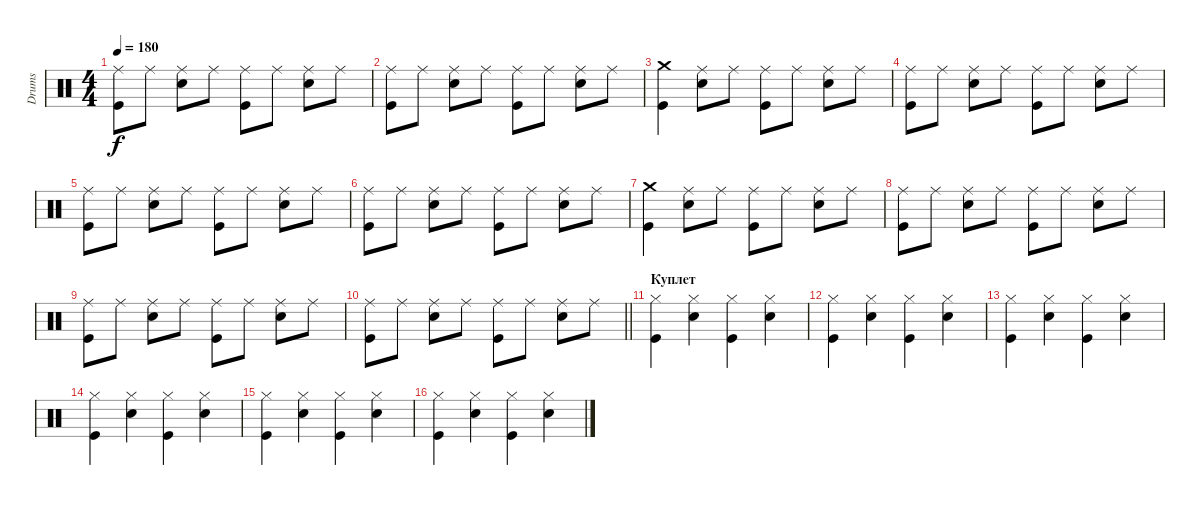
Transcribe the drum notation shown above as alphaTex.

\track ("Drums" "Drums") {instrument percussion}
\staff {score}
\articulation defaults
\ts (4 4)
\tempo 180
\clef neutral
\ks c
("Kick (hit)" "Ride (middle)").8{dy f} "Ride (middle)".8 ("Snare (hit) 2" "Ride (middle)").8 "Ride (middle)".8 ("Kick (hit)" "Ride (middle)").8 "Ride (middle)".8 ("Snare (hit) 2" "Ride (middle)").8 "Ride (middle)".8 |
("Kick (hit)" "Ride (middle)").8 "Ride (middle)".8 ("Snare (hit) 2" "Ride (middle)").8 "Ride (middle)".8 ("Kick (hit)" "Ride (middle)").8 "Ride (middle)".8 ("Snare (hit) 2" "Ride (middle)").8 "Ride (middle)".8 |
("Kick (hit)" "Crash medium (hit)").4 ("Snare (hit) 2" "Ride (middle)").8 "Ride (middle)".8 ("Kick (hit)" "Ride (middle)").8 "Ride (middle)".8 ("Snare (hit) 2" "Ride (middle)").8 "Ride (middle)".8 |
("Kick (hit)" "Ride (middle)").8 "Ride (middle)".8 ("Snare (hit) 2" "Ride (middle)").8 "Ride (middle)".8 ("Kick (hit)" "Ride (middle)").8 "Ride (middle)".8 ("Snare (hit) 2" "Ride (middle)").8 "Ride (middle)".8 |
("Kick (hit)" "Ride (middle)").8 "Ride (middle)".8 ("Snare (hit) 2" "Ride (middle)").8 "Ride (middle)".8 ("Kick (hit)" "Ride (middle)").8 "Ride (middle)".8 ("Snare (hit) 2" "Ride (middle)").8 "Ride (middle)".8 |
("Kick (hit)" "Ride (middle)").8 "Ride (middle)".8 ("Snare (hit) 2" "Ride (middle)").8 "Ride (middle)".8 ("Kick (hit)" "Ride (middle)").8 "Ride (middle)".8 ("Snare (hit) 2" "Ride (middle)").8 "Ride (middle)".8 |
("Kick (hit)" "Crash medium (hit)").4 ("Snare (hit) 2" "Ride (middle)").8 "Ride (middle)".8 ("Kick (hit)" "Ride (middle)").8 "Ride (middle)".8 ("Snare (hit) 2" "Ride (middle)").8 "Ride (middle)".8 |
("Kick (hit)" "Ride (middle)").8 "Ride (middle)".8 ("Snare (hit) 2" "Ride (middle)").8 "Ride (middle)".8 ("Kick (hit)" "Ride (middle)").8 "Ride (middle)".8 ("Snare (hit) 2" "Ride (middle)").8 "Ride (middle)".8 |
("Kick (hit)" "Ride (middle)").8 "Ride (middle)".8 ("Snare (hit) 2" "Ride (middle)").8 "Ride (middle)".8 ("Kick (hit)" "Ride (middle)").8 "Ride (middle)".8 ("Snare (hit) 2" "Ride (middle)").8 "Ride (middle)".8 |
\barLineRight lightlight
("Kick (hit)" "Ride (middle)").8 "Ride (middle)".8 ("Snare (hit) 2" "Ride (middle)").8 "Ride (middle)".8 ("Kick (hit)" "Ride (middle)").8 "Ride (middle)".8 ("Snare (hit) 2" "Ride (middle)").8 "Ride (middle)".8 |
\section ("" "Куплет")
("Kick (hit)" "Hi-Hat (closed)").4 ("Snare (hit) 2" "Hi-Hat (closed)").4 ("Kick (hit)" "Hi-Hat (closed)").4 ("Snare (hit) 2" "Hi-Hat (closed)").4 |
("Kick (hit)" "Hi-Hat (closed)").4 ("Snare (hit) 2" "Hi-Hat (closed)").4 ("Kick (hit)" "Hi-Hat (closed)").4 ("Snare (hit) 2" "Hi-Hat (closed)").4 |
("Kick (hit)" "Hi-Hat (closed)").4 ("Snare (hit) 2" "Hi-Hat (closed)").4 ("Kick (hit)" "Hi-Hat (closed)").4 ("Snare (hit) 2" "Hi-Hat (closed)").4 |
("Kick (hit)" "Hi-Hat (closed)").4 ("Snare (hit) 2" "Hi-Hat (closed)").4 ("Kick (hit)" "Hi-Hat (closed)").4 ("Snare (hit) 2" "Hi-Hat (closed)").4 |
("Kick (hit)" "Hi-Hat (closed)").4 ("Snare (hit) 2" "Hi-Hat (closed)").4 ("Kick (hit)" "Hi-Hat (closed)").4 ("Snare (hit) 2" "Hi-Hat (closed)").4 |
("Kick (hit)" "Hi-Hat (closed)").4 ("Snare (hit) 2" "Hi-Hat (closed)").4 ("Kick (hit)" "Hi-Hat (closed)").4 ("Snare (hit) 2" "Hi-Hat (closed)").4
